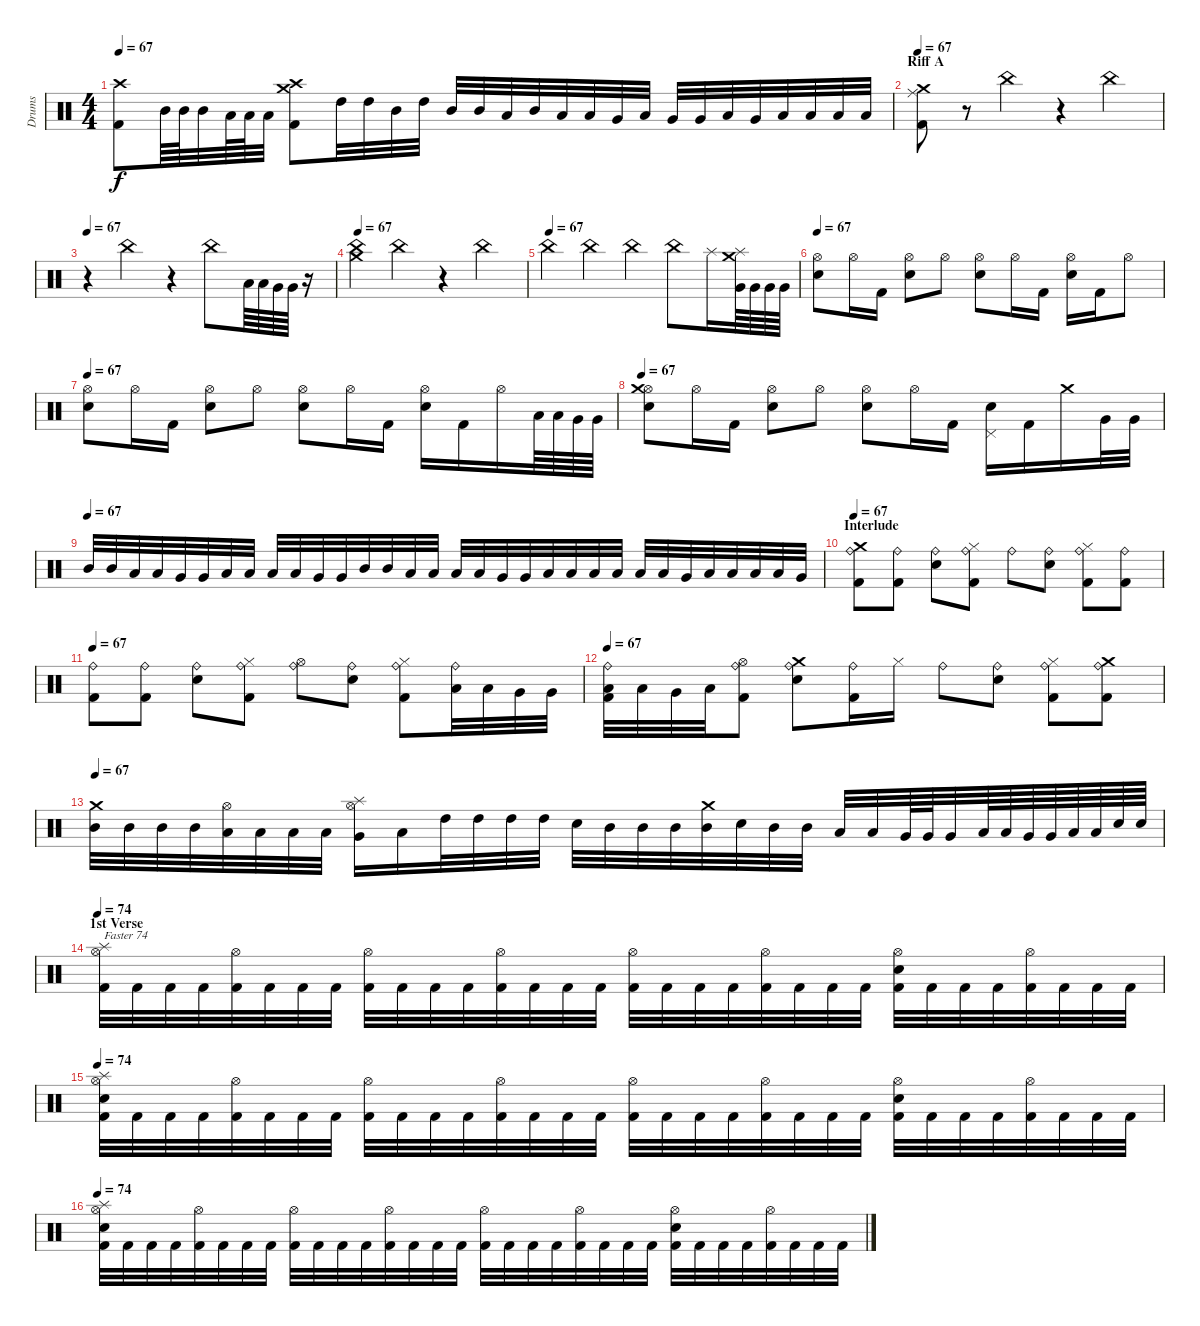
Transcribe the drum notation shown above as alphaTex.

\track ("Drums" "Drums") {instrument percussion}
\staff {score}
\articulation defaults
\ts (4 4)
\tempo 67
\clef neutral
\ks c
("Kick (hit) 2" "Crash high (hit)").8{dy f} "Mid Tom (hit)".64 "Mid Tom (hit)".64 "Mid Tom (hit)".32 "Low Tom (hit)".64 "Low Tom (hit)".64 "Low Tom (hit)".32 ("Crash high (hit)" "Crash medium (hit)" "Kick (hit) 2").8 "High Tom (hit)".32 "High Tom (hit)".32 "Mid Tom (hit)".32 "High Tom (hit)".32 "Mid Tom (hit)".32 "Mid Tom (hit)".32 "Low Tom (hit)".32 "Mid Tom (hit)".32 "Low Tom (hit)".32 "Low Tom (hit)".32 "Very Low Tom (hit)".32 "Low Tom (hit)".32 "Very Low Tom (hit)".32 "Very Low Tom (hit)".32 "Low Floor Tom (hit)".32 "Very Low Tom (hit)".32 "Low Floor Tom (hit)".32 "Low Floor Tom (hit)".32 "Low Floor Tom (hit)".32 "Low Floor Tom (hit)".32 |
\section ("" "Riff A")
\tempo 67
("Kick (hit) 2" "Ride (middle)" "Crash medium (hit)").8 r.8 "China (hit)".4 r.4 "China (hit)".4 |
\tempo 67
r.4 "China (hit)".4 r.4 "China (hit)".8 "Low Tom (hit)".64 "Low Tom (hit)".64 "Very Low Tom (hit)".64 "Very Low Tom (hit)".64 r.16 |
\tempo 67
("Crash medium (hit)" "China (hit)").4 "China (hit)".4 r.4 "China (hit)".4 |
\tempo (67)
"China (hit)".4 "China (hit)".4 "China (hit)".4 "China (hit)".8 "Splash (hit)".16 ("Splash (hit)" "Crash medium (hit)" "Very Low Tom (hit)").64 "Very Low Tom (hit)".64 "Very Low Tom (hit)".64 "Very Low Tom (hit)".64 |
\tempo 67
("Hi-Hat (open)" "Electric Snare (hit)").8 "Hi-Hat (open)".16 "Kick (hit) 2".16 ("Hi-Hat (open)" "Electric Snare (hit)").8 "Hi-Hat (open)".8 ("Hi-Hat (open)" "Electric Snare (hit)").8 "Hi-Hat (open)".16 "Kick (hit) 2".16 ("Hi-Hat (open)" "Electric Snare (hit)").16 "Kick (hit) 2".16 "Hi-Hat (open)".8 |
\tempo 67
("Hi-Hat (open)" "Electric Snare (hit)").8 "Hi-Hat (open)".16 "Kick (hit) 2".16 ("Hi-Hat (open)" "Electric Snare (hit)").8 "Hi-Hat (open)".8 ("Hi-Hat (open)" "Electric Snare (hit)").8 "Hi-Hat (open)".16 "Kick (hit) 2".16 ("Hi-Hat (open)" "Electric Snare (hit)").16 "Kick (hit) 2".16 "Hi-Hat (open)".16 "Low Tom (hit)".64 "Low Tom (hit)".64 "Very Low Tom (hit)".64 "Very Low Tom (hit)".64 |
\tempo 67
("Hi-Hat (open)" "Electric Snare (hit)" "Crash medium (hit)").8 "Hi-Hat (open)".16 "Kick (hit) 2".16 ("Hi-Hat (open)" "Electric Snare (hit)").8 "Hi-Hat (open)".8 ("Hi-Hat (open)" "Electric Snare (hit)").8 "Hi-Hat (open)".16 "Kick (hit) 2".16 ("Electric Snare (hit)" "Pedal Hi-Hat (hit)").16 "Kick (hit) 2".16 "Crash medium (hit)".16 "Very Low Tom (hit)".32 "Very Low Tom (hit)".32 |
\tempo (67)
"Mid Tom (hit)".32 "Mid Tom (hit)".32 "Low Tom (hit)".32 "Low Tom (hit)".32 "Very Low Tom (hit)".32 "Very Low Tom (hit)".32 "Low Floor Tom (hit)".32 "Low Floor Tom (hit)".32 "Low Tom (hit)".32 "Low Tom (hit)".32 "Very Low Tom (hit)".32 "Very Low Tom (hit)".32 "Mid Tom (hit)".32 "Mid Tom (hit)".32 "Low Tom (hit)".32 "Low Tom (hit)".32 "Low Tom (hit)".32 "Low Tom (hit)".32 "Very Low Tom (hit)".32 "Very Low Tom (hit)".32 "Low Floor Tom (hit)".32 "Low Floor Tom (hit)".32 "Low Tom (hit)".32 "Low Tom (hit)".32 "Low Tom (hit)".32 "Low Tom (hit)".32 "Very Low Tom (hit)".32 "Low Tom (hit)".32 "Low Tom (hit)".32 "Low Tom (hit)".32 "Low Tom (hit)".32 "Very Low Tom (hit)".32 |
\section ("" "Interlude")
\tempo 67
("Crash medium (hit)" "Ride (bell)" "Kick (hit) 2").8 ("Ride (bell)" "Kick (hit) 2").8 ("Ride (bell)" "Electric Snare (hit)").8 ("Ride (bell)" "Kick (hit) 2" "Hi-Hat (closed)").8 "Ride (bell)".8 ("Electric Snare (hit)" "Ride (bell)").8 ("Kick (hit) 2" "Hi-Hat (closed)" "Ride (bell)").8 ("Kick (hit) 2" "Ride (bell)").8 |
\tempo 67
("Kick (hit) 2" "Ride (bell)").8 ("Ride (bell)" "Kick (hit) 2").8 ("Ride (bell)" "Electric Snare (hit)").8 ("Ride (bell)" "Kick (hit) 2" "Hi-Hat (closed)").8 ("Ride (bell)" "Hi-Hat (open)").8 ("Ride (bell)" "Electric Snare (hit)").8 ("Ride (bell)" "Kick (hit) 2" "Hi-Hat (closed)").8 ("Low Tom (hit)" "Ride (bell)").32 "Low Tom (hit)".32 "Very Low Tom (hit)".32 "Very Low Tom (hit)".32 |
\tempo 67
("Low Floor Tom (hit)" "Ride (bell)" "Kick (hit) 2").32 "Low Floor Tom (hit)".32 "Very Low Tom (hit)".32 "Low Floor Tom (hit)".32 ("Ride (bell)" "Kick (hit) 2" "Hi-Hat (open)").8 ("Ride (bell)" "Crash medium (hit)" "Electric Snare (hit)").8 ("Ride (bell)" "Kick (hit) 2").16 "Hi-Hat (closed)".16 "Ride (bell)".8 ("Ride (bell)" "Electric Snare (hit)").8 ("Ride (bell)" "Hi-Hat (closed)" "Kick (hit) 2").8 ("Ride (bell)" "Kick (hit) 2" "Crash medium (hit)").8 |
\tempo 67
("Mid Tom (hit)" "Crash medium (hit)").32 "Mid Tom (hit)".32 "Mid Tom (hit)".32 "Mid Tom (hit)".32 ("Hi-Hat (open)" "Low Tom (hit)").32 "Low Tom (hit)".32 "Low Tom (hit)".32 "Low Tom (hit)".32 ("Hi-Hat (open)" "Very Low Tom (hit)" "Splash (hit)").16 "Low Tom (hit)".16 "High Tom (hit)".32 "High Tom (hit)".32 "High Tom (hit)".32 "High Tom (hit)".32 "Electric Snare (hit)".32 "Mid Tom (hit)".32 "Mid Tom (hit)".32 "Mid Tom (hit)".32 ("Mid Tom (hit)" "Crash medium (hit)").32 "Electric Snare (hit)".32 "Mid Tom (hit)".32 "Mid Tom (hit)".32 "Low Tom (hit)".32 "Low Tom (hit)".32 "Very Low Tom (hit)".64 "Very Low Tom (hit)".64 "Very Low Tom (hit)".32 "Low Tom (hit)".64 "Low Tom (hit)".64 "Very Low Tom (hit)".64 "Very Low Tom (hit)".64 "Low Floor Tom (hit)".64 "Low Floor Tom (hit)".64 "Electric Snare (hit)".64 "Electric Snare (hit)".64 |
\section ("" "1st Verse")
\tempo 74
("Hi-Hat (open)" "Kick (hit) 2" "Splash (hit)").32{txt "Faster 74"} "Kick (hit) 2".32 "Kick (hit) 2".32 "Kick (hit) 2".32 ("Hi-Hat (open)" "Kick (hit) 2").32 "Kick (hit) 2".32 "Kick (hit) 2".32 "Kick (hit) 2".32 ("Hi-Hat (open)" "Kick (hit) 2").32 "Kick (hit) 2".32 "Kick (hit) 2".32 "Kick (hit) 2".32 ("Hi-Hat (open)" "Kick (hit) 2").32 "Kick (hit) 2".32 "Kick (hit) 2".32 "Kick (hit) 2".32 ("Hi-Hat (open)" "Kick (hit) 2").32 "Kick (hit) 2".32 "Kick (hit) 2".32 "Kick (hit) 2".32 ("Hi-Hat (open)" "Kick (hit) 2").32 "Kick (hit) 2".32 "Kick (hit) 2".32 "Kick (hit) 2".32 ("Hi-Hat (open)" "Electric Snare (hit)" "Kick (hit) 2").32 "Kick (hit) 2".32 "Kick (hit) 2".32 "Kick (hit) 2".32 ("Hi-Hat (open)" "Kick (hit) 2").32 "Kick (hit) 2".32 "Kick (hit) 2".32 "Kick (hit) 2".32 |
\tempo 74
("Electric Snare (hit)" "Splash (hit)" "Kick (hit) 2" "Hi-Hat (open)").32 "Kick (hit) 2".32 "Kick (hit) 2".32 "Kick (hit) 2".32 ("Hi-Hat (open)" "Kick (hit) 2").32 "Kick (hit) 2".32 "Kick (hit) 2".32 "Kick (hit) 2".32 ("Hi-Hat (open)" "Kick (hit) 2").32 "Kick (hit) 2".32 "Kick (hit) 2".32 "Kick (hit) 2".32 ("Hi-Hat (open)" "Kick (hit) 2").32 "Kick (hit) 2".32 "Kick (hit) 2".32 "Kick (hit) 2".32 ("Hi-Hat (open)" "Kick (hit) 2").32 "Kick (hit) 2".32 "Kick (hit) 2".32 "Kick (hit) 2".32 ("Hi-Hat (open)" "Kick (hit) 2").32 "Kick (hit) 2".32 "Kick (hit) 2".32 "Kick (hit) 2".32 ("Hi-Hat (open)" "Electric Snare (hit)" "Kick (hit) 2").32 "Kick (hit) 2".32 "Kick (hit) 2".32 "Kick (hit) 2".32 ("Hi-Hat (open)" "Kick (hit) 2").32 "Kick (hit) 2".32 "Kick (hit) 2".32 "Kick (hit) 2".32 |
\tempo 74
("Hi-Hat (open)" "Kick (hit) 2" "Splash (hit)" "Electric Snare (hit)").32 "Kick (hit) 2".32 "Kick (hit) 2".32 "Kick (hit) 2".32 ("Hi-Hat (open)" "Kick (hit) 2").32 "Kick (hit) 2".32 "Kick (hit) 2".32 "Kick (hit) 2".32 ("Hi-Hat (open)" "Kick (hit) 2").32 "Kick (hit) 2".32 "Kick (hit) 2".32 "Kick (hit) 2".32 ("Hi-Hat (open)" "Kick (hit) 2").32 "Kick (hit) 2".32 "Kick (hit) 2".32 "Kick (hit) 2".32 ("Hi-Hat (open)" "Kick (hit) 2").32 "Kick (hit) 2".32 "Kick (hit) 2".32 "Kick (hit) 2".32 ("Hi-Hat (open)" "Kick (hit) 2").32 "Kick (hit) 2".32 "Kick (hit) 2".32 "Kick (hit) 2".32 ("Hi-Hat (open)" "Electric Snare (hit)" "Kick (hit) 2").32 "Kick (hit) 2".32 "Kick (hit) 2".32 "Kick (hit) 2".32 ("Hi-Hat (open)" "Kick (hit) 2").32 "Kick (hit) 2".32 "Kick (hit) 2".32 "Kick (hit) 2".32
